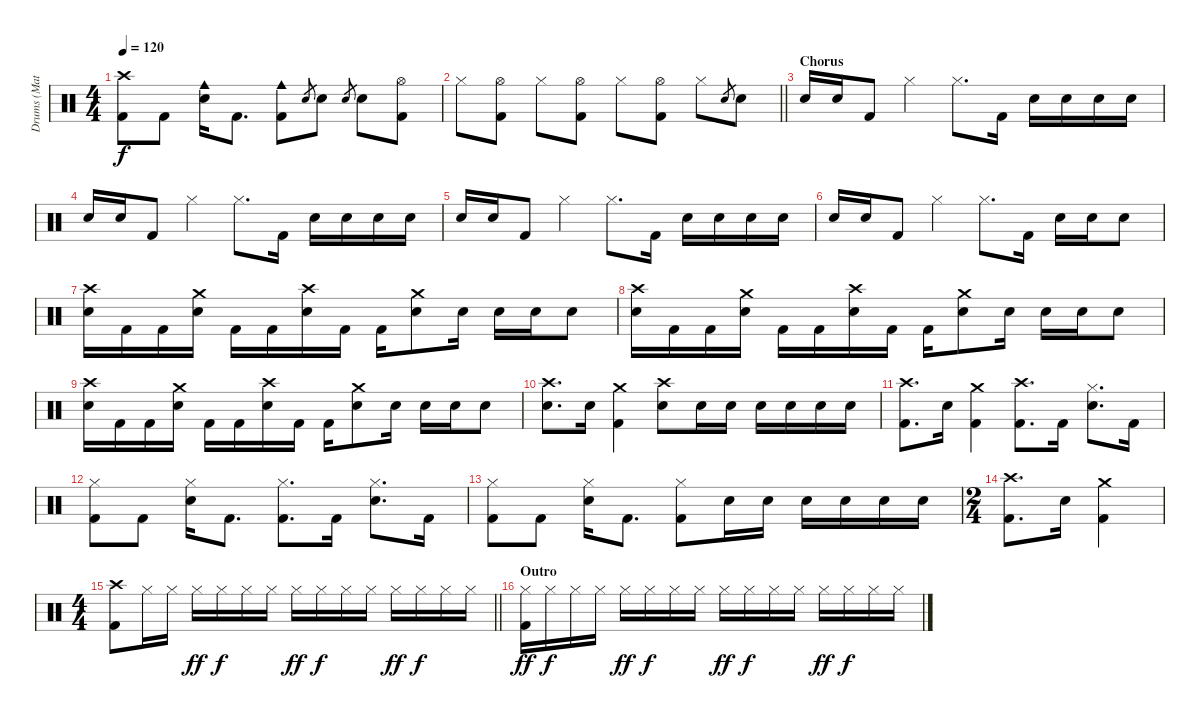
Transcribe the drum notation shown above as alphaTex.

\track ("Drums (Matt)" "Drums (Mat") {instrument percussion}
\staff {score}
\articulation defaults
\ts (4 4)
\tempo 120
\clef neutral
\ks c
("Crash high (hit)" "Kick (hit) 2").8{dy f} "Kick (hit) 2".8 ("Cowbell medium (hit)" "Snare (hit) 2").16 "Kick (hit) 2".8{d} ("Cowbell medium (hit)" "Kick (hit) 2").8 "Snare (hit) 2".8{gr} "Snare (hit) 2".8 "Snare (hit) 2".8{gr} "Snare (hit) 2".8 ("Hi-Hat (open)" "Kick (hit) 2").8 |
\barLineRight lightlight "Hi-Hat (closed)".8
("Hi-Hat (open)" "Kick (hit) 2").8 "Hi-Hat (closed)".8 ("Hi-Hat (open)" "Kick (hit) 2").8 "Hi-Hat (closed)".8 ("Hi-Hat (open)" "Kick (hit) 2").8 "Hi-Hat (closed)".8 "Snare (hit) 2".8{gr} "Snare (hit) 2".8 |
\section ("" "Chorus")
"Snare (hit) 2".16 "Snare (hit) 2".16 "Kick (hit) 2".8 "Hi-Hat (closed)".4 "Hi-Hat (closed)".8{d} "Kick (hit) 2".16 "Snare (hit) 2".16 "Snare (hit) 2".16 "Snare (hit) 2".16 "Snare (hit) 2".16 |
"Snare (hit) 2".16 "Snare (hit) 2".16 "Kick (hit) 2".8 "Hi-Hat (closed)".4 "Hi-Hat (closed)".8{d} "Kick (hit) 2".16 "Snare (hit) 2".16 "Snare (hit) 2".16 "Snare (hit) 2".16 "Snare (hit) 2".16 |
"Snare (hit) 2".16 "Snare (hit) 2".16 "Kick (hit) 2".8 "Hi-Hat (closed)".4 "Hi-Hat (closed)".8{d} "Kick (hit) 2".16 "Snare (hit) 2".16 "Snare (hit) 2".16 "Snare (hit) 2".16 "Snare (hit) 2".16 |
"Snare (hit) 2".16 "Snare (hit) 2".16 "Kick (hit) 2".8 "Hi-Hat (closed)".4 "Hi-Hat (closed)".8{d} "Kick (hit) 2".16 "Snare (hit) 2".16 "Snare (hit) 2".16 "Snare (hit) 2".8 |
("Crash high (hit)" "Snare (hit) 2").16 "Kick (hit) 2".16 "Kick (hit) 2".16 ("Crash medium (hit)" "Snare (hit) 2").16 "Kick (hit) 2".16 "Kick (hit) 2".16 ("Crash high (hit)" "Snare (hit) 2").16 "Kick (hit) 2".16 "Kick (hit) 2".16 ("Crash medium (hit)" "Snare (hit) 2").8 "Snare (hit) 2".16 "Snare (hit) 2".16 "Snare (hit) 2".16 "Snare (hit) 2".8 |
("Crash high (hit)" "Snare (hit) 2").16 "Kick (hit) 2".16 "Kick (hit) 2".16 ("Crash medium (hit)" "Snare (hit) 2").16 "Kick (hit) 2".16 "Kick (hit) 2".16 ("Crash high (hit)" "Snare (hit) 2").16 "Kick (hit) 2".16 "Kick (hit) 2".16 ("Crash medium (hit)" "Snare (hit) 2").8 "Snare (hit) 2".16 "Snare (hit) 2".16 "Snare (hit) 2".16 "Snare (hit) 2".8 |
("Crash high (hit)" "Snare (hit) 2").16 "Kick (hit) 2".16 "Kick (hit) 2".16 ("Crash medium (hit)" "Snare (hit) 2").16 "Kick (hit) 2".16 "Kick (hit) 2".16 ("Crash high (hit)" "Snare (hit) 2").16 "Kick (hit) 2".16 "Kick (hit) 2".16 ("Crash medium (hit)" "Snare (hit) 2").8 "Snare (hit) 2".16 "Snare (hit) 2".16 "Snare (hit) 2".16 "Snare (hit) 2".8 |
("Crash high (hit)" "Snare (hit) 2").8{d} "Snare (hit) 2".16 ("Crash medium (hit)" "Kick (hit) 2").4 ("Crash high (hit)" "Snare (hit) 2").8 "Snare (hit) 2".16 "Snare (hit) 2".16 "Snare (hit) 2".16 "Snare (hit) 2".16 "Snare (hit) 2".16 "Snare (hit) 2".16 |
("Crash high (hit)" "Kick (hit) 2").8{d} "Snare (hit) 2".16 ("Crash medium (hit)" "Kick (hit) 2").4 ("Crash high (hit)" "Kick (hit) 2").8{d} "Kick (hit) 2".16 ("Hi-Hat (closed)" "Snare (hit) 2").8{d} "Kick (hit) 2".16 |
("Hi-Hat (closed)" "Kick (hit) 2").8 "Kick (hit) 2".8 ("Hi-Hat (closed)" "Snare (hit) 2").16 "Kick (hit) 2".8{d} ("Hi-Hat (closed)" "Kick (hit) 2").8{d} "Kick (hit) 2".16 ("Hi-Hat (closed)" "Snare (hit) 2").8{d} "Kick (hit) 2".16 |
("Hi-Hat (closed)" "Kick (hit) 2").8 "Kick (hit) 2".8 ("Hi-Hat (closed)" "Snare (hit) 2").16 "Kick (hit) 2".8{d} ("Hi-Hat (closed)" "Kick (hit) 2").8 "Snare (hit) 2".16 "Snare (hit) 2".16 "Snare (hit) 2".16 "Snare (hit) 2".16 "Snare (hit) 2".16 "Snare (hit) 2".16 |
\ts (2 4)
("Crash high (hit)" "Kick (hit) 2").8{d} "Snare (hit) 2".16 ("Crash medium (hit)" "Kick (hit) 2").4 |
\ts (4 4)
\barLineRight lightlight
("Crash high (hit)" "Kick (hit) 2").8 "Hi-Hat (closed)".16 "Hi-Hat (closed)".16 "Hi-Hat (closed)".16{dy ff} "Hi-Hat (closed)".16{dy f} "Hi-Hat (closed)".16 "Hi-Hat (closed)".16 "Hi-Hat (closed)".16{dy ff} "Hi-Hat (closed)".16{dy f} "Hi-Hat (closed)".16 "Hi-Hat (closed)".16 "Hi-Hat (closed)".16{dy ff} "Hi-Hat (closed)".16{dy f} "Hi-Hat (closed)".16 "Hi-Hat (closed)".16 |
\section ("" "Outro")
("Hi-Hat (closed)" "Kick (hit) 2").16{dy ff} "Hi-Hat (closed)".16{dy f} "Hi-Hat (closed)".16 "Hi-Hat (closed)".16 "Hi-Hat (closed)".16{dy ff} "Hi-Hat (closed)".16{dy f} "Hi-Hat (closed)".16 "Hi-Hat (closed)".16 "Hi-Hat (closed)".16{dy ff} "Hi-Hat (closed)".16{dy f} "Hi-Hat (closed)".16 "Hi-Hat (closed)".16 "Hi-Hat (closed)".16{dy ff} "Hi-Hat (closed)".16{dy f} "Hi-Hat (closed)".16 "Hi-Hat (closed)".16
